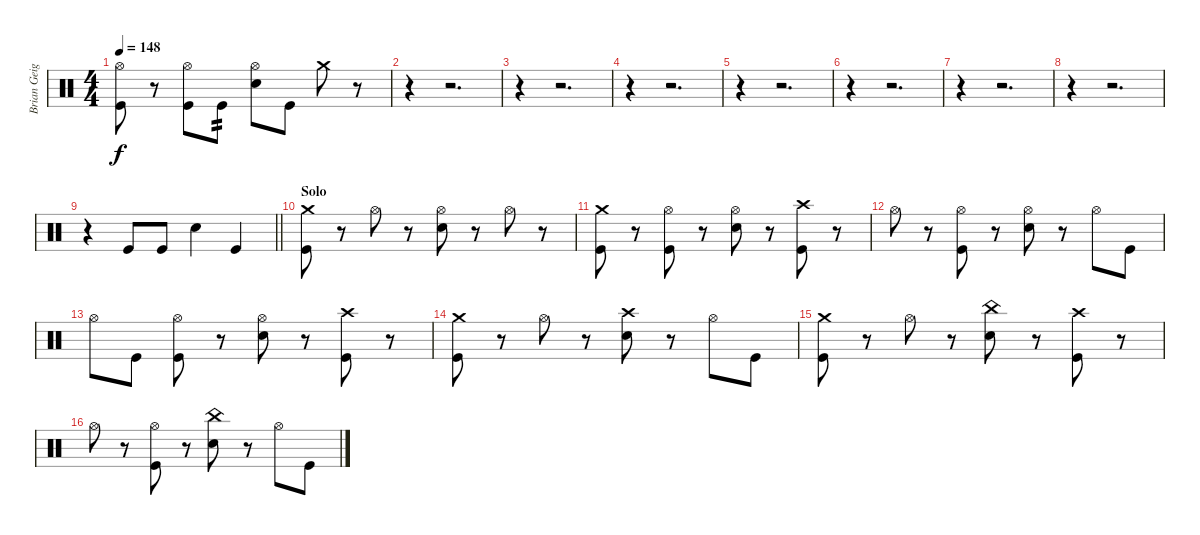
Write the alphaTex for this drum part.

\track ("Brian Geiger" "Brian Geig") {instrument percussion}
\staff {score}
\articulation defaults
\ts (4 4)
\tempo 148
\clef neutral
\ks c
("Hi-Hat (open)" "Kick (hit)").8{dy f} r.8 ("Hi-Hat (open)" "Kick (hit)").8 "Kick (hit)".8{tp 2} ("Hi-Hat (open)" "Snare (hit) 2").8 "Kick (hit)".8 "Crash medium (hit)".8 r.8 |
r.4 r.2{d} |
r.4 r.2{d} |
r.4 r.2{d} |
r.4 r.2{d} |
r.4 r.2{d} |
r.4 r.2{d} |
r.4 r.2{d} |
\barLineRight lightlight
r.4 "Kick (hit)".8 "Kick (hit)".8 "Snare (hit) 2".4 "Kick (hit)".4 |
\section ("" "Solo")
("Crash medium (hit)" "Kick (hit)").8 r.8 "Hi-Hat (open)".8 r.8 ("Hi-Hat (open)" "Snare (hit) 2").8 r.8 "Hi-Hat (open)".8 r.8 |
("Crash medium (hit)" "Kick (hit)").8 r.8 ("Hi-Hat (open)" "Kick (hit)").8 r.8 ("Hi-Hat (open)" "Snare (hit) 2").8 r.8 ("Crash high (hit)" "Kick (hit)").8 r.8 |
"Hi-Hat (open)".8 r.8 ("Hi-Hat (open)" "Kick (hit)").8 r.8 ("Hi-Hat (open)" "Snare (hit) 2").8 r.8 "Hi-Hat (open)".8 "Kick (hit)".8 |
"Hi-Hat (open)".8 "Kick (hit)".8 ("Hi-Hat (open)" "Kick (hit)").8 r.8 ("Hi-Hat (open)" "Snare (hit) 2").8 r.8 ("Crash high (hit)" "Kick (hit)").8 r.8 |
("Crash medium (hit)" "Kick (hit)").8 r.8 "Hi-Hat (open)".8 r.8 ("Crash high (hit)" "Snare (hit) 2").8 r.8 "Hi-Hat (open)".8 "Kick (hit)".8 |
("Crash medium (hit)" "Kick (hit)").8 r.8 "Hi-Hat (open)".8 r.8 ("China (hit)" "Snare (hit) 2").8 r.8 ("Crash high (hit)" "Kick (hit)").8 r.8 |
"Hi-Hat (open)".8 r.8 ("Hi-Hat (open)" "Kick (hit)").8 r.8 ("China (hit)" "Snare (hit) 2").8 r.8 "Hi-Hat (open)".8 "Kick (hit)".8
